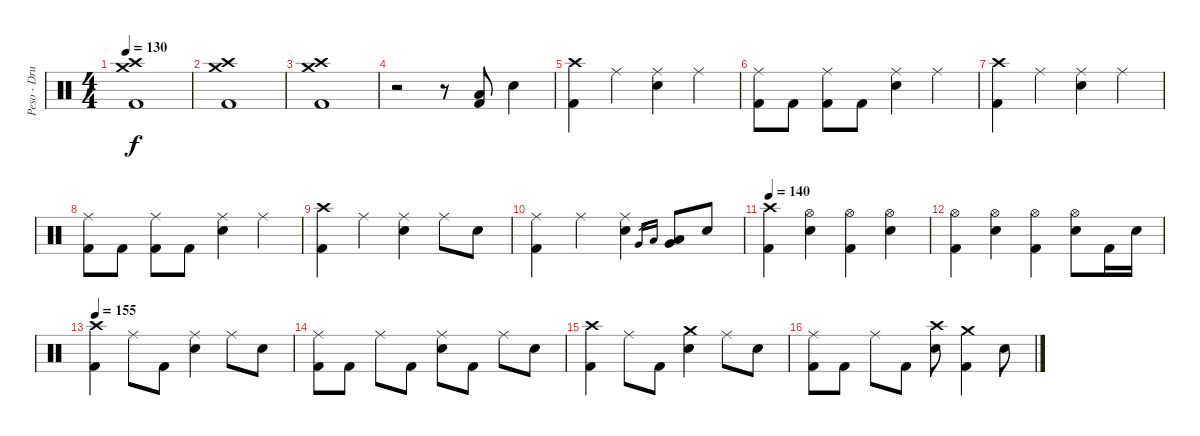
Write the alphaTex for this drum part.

\track ("Peso - Drums" "Peso - Dru") {instrument percussion}
\staff {score}
\articulation defaults
\ts (4 4)
\tempo 130
\clef neutral
\ks c
("Crash medium (hit)" "Crash high (hit)" "Kick (hit) 2").1{dy f} |
("Crash medium (hit)" "Crash high (hit)" "Kick (hit) 2").1 |
("Crash medium (hit)" "Crash high (hit)" "Kick (hit) 2").1 |
r.2 r.8 ("Low Floor Tom (hit)" "Kick (hit) 2").8 "Electric Snare (hit)".4 |
("Crash high (hit)" "Kick (hit) 2").4 "Ride (middle)".4 ("Ride (middle)" "Electric Snare (hit)").4 "Ride (middle)".4 |
("Ride (middle)" "Kick (hit) 2").8 "Kick (hit) 2".8 ("Ride (middle)" "Kick (hit) 2").8 "Kick (hit) 2".8 ("Ride (middle)" "Electric Snare (hit)").4 "Ride (middle)".4 |
("Crash high (hit)" "Kick (hit) 2").4 "Ride (middle)".4 ("Ride (middle)" "Electric Snare (hit)").4 "Ride (middle)".4 |
("Ride (middle)" "Kick (hit) 2").8 "Kick (hit) 2".8 ("Ride (middle)" "Kick (hit) 2").8 "Kick (hit) 2".8 ("Ride (middle)" "Electric Snare (hit)").4 "Ride (middle)".4 |
("Crash high (hit)" "Kick (hit) 2").4 "Ride (middle)".4 ("Ride (middle)" "Electric Snare (hit)").4 "Ride (middle)".8 "Electric Snare (hit)".8 |
("Ride (middle)" "Kick (hit) 2").4 "Ride (middle)".4 ("Ride (middle)" "Electric Snare (hit)").4 "Very Low Tom (hit)".16{gr} "Low Floor Tom (hit)".16{gr} ("Very Low Tom (hit)" "Low Floor Tom (hit)").8 "Electric Snare (hit)".8 |
\tempo 140
("Crash high (hit)" "Kick (hit) 2").4 ("Hi-Hat (open)" "Electric Snare (hit)").4 ("Hi-Hat (open)" "Kick (hit) 2").4 ("Hi-Hat (open)" "Electric Snare (hit)").4 |
("Hi-Hat (open)" "Kick (hit) 2").4 ("Hi-Hat (open)" "Electric Snare (hit)").4 ("Hi-Hat (open)" "Kick (hit) 2").4 ("Hi-Hat (open)" "Electric Snare (hit)").8 "Kick (hit) 2".16 "Electric Snare (hit)".16 |
\tempo 155
("Crash high (hit)" "Kick (hit) 2").4 "Ride (middle)".8 "Kick (hit) 2".8 ("Ride (middle)" "Electric Snare (hit)").4 "Ride (middle)".8 "Electric Snare (hit)".8 |
("Ride (middle)" "Kick (hit) 2").8 "Kick (hit) 2".8 "Ride (middle)".8 "Kick (hit) 2".8 ("Ride (middle)" "Electric Snare (hit)").8 "Kick (hit) 2".8 "Ride (middle)".8 "Electric Snare (hit)".8 |
("Crash high (hit)" "Kick (hit) 2").4 "Ride (middle)".8 "Kick (hit) 2".8 ("Crash medium (hit)" "Electric Snare (hit)").4 "Ride (middle)".8 "Electric Snare (hit)".8 |
("Ride (middle)" "Kick (hit) 2").8 "Kick (hit) 2".8 "Ride (middle)".8 "Kick (hit) 2".8 ("Crash high (hit)" "Electric Snare (hit)").8 ("Crash medium (hit)" "Kick (hit) 2").4 "Electric Snare (hit)".8
